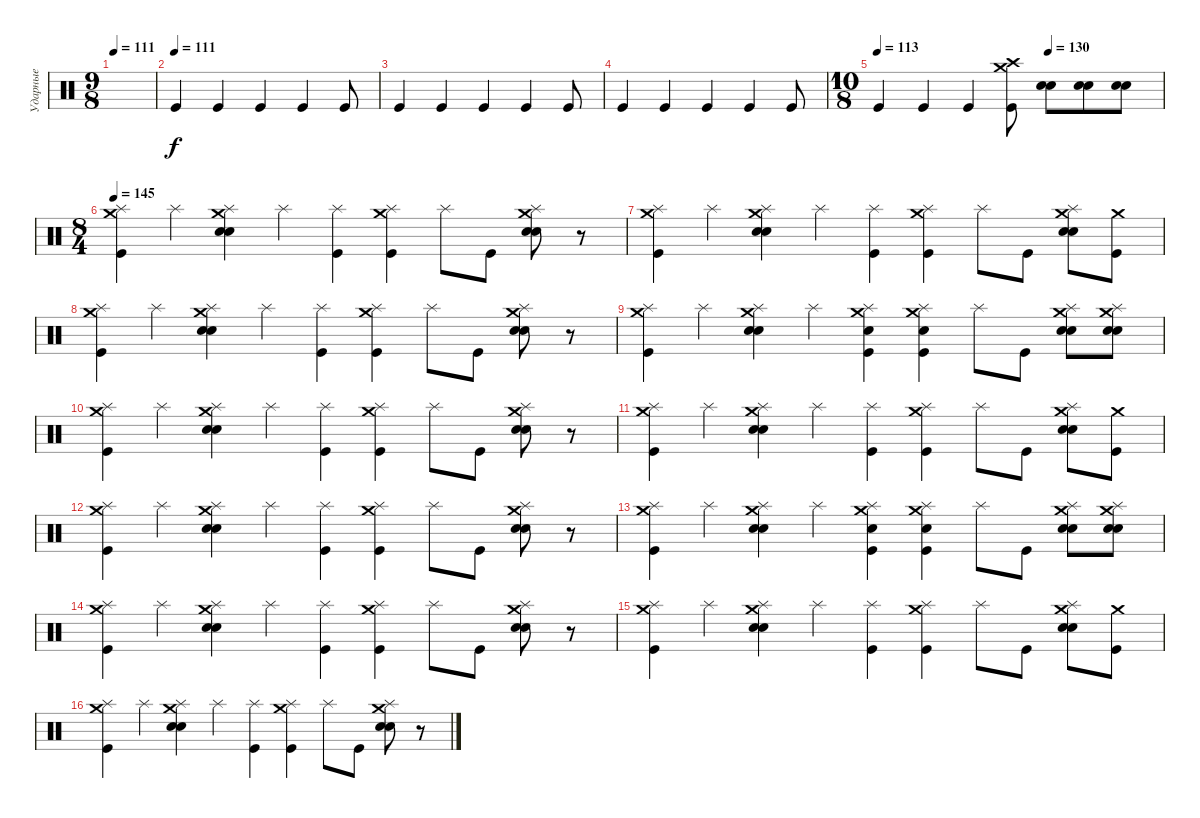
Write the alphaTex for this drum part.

\track ("Ударные" "Ударные") {instrument percussion}
\staff {score}
\articulation defaults
\ts (9 8)
\tempo 111
\clef neutral
\ks c
|
\tempo (111)
"Kick (hit)".4 "Kick (hit)".4 "Kick (hit)".4 "Kick (hit)".4 "Kick (hit)".8 |
"Kick (hit)".4 "Kick (hit)".4 "Kick (hit)".4 "Kick (hit)".4 "Kick (hit)".8 |
"Kick (hit)".4 "Kick (hit)".4 "Kick (hit)".4 "Kick (hit)".4 "Kick (hit)".8 |
\ts (10 8)
\tempo 113
\tempo (130 0.6)
"Kick (hit)".4 "Kick (hit)".4 "Kick (hit)".4 ("Crash medium (hit)" "Crash high (hit)" "Kick (hit)").8 ("Electric Snare (hit)" "Electric Snare (hit)").8 ("Electric Snare (hit)" "Electric Snare (hit)").8 ("Electric Snare (hit)" "Electric Snare (hit)").8 |
\ts (8 4)
\tempo 145
("Splash (hit)" "Crash medium (hit)" "Kick (hit)").4 "Splash (hit)".4 ("Splash (hit)" "Crash medium (hit)" "Electric Snare (hit)" "Electric Snare (hit)").4 "Splash (hit)".4 ("Splash (hit)" "Kick (hit)").4 ("Splash (hit)" "Crash medium (hit)" "Kick (hit)").4 "Splash (hit)".8 "Kick (hit)".8 ("Splash (hit)" "Crash medium (hit)" "Electric Snare (hit)" "Electric Snare (hit)").8 r.8 |
("Splash (hit)" "Crash medium (hit)" "Kick (hit)").4 "Splash (hit)".4 ("Splash (hit)" "Crash medium (hit)" "Electric Snare (hit)" "Electric Snare (hit)").4 "Splash (hit)".4 ("Splash (hit)" "Kick (hit)").4 ("Splash (hit)" "Crash medium (hit)" "Kick (hit)").4 "Splash (hit)".8 "Kick (hit)".8 ("Splash (hit)" "Crash medium (hit)" "Electric Snare (hit)" "Electric Snare (hit)").8 ("Crash medium (hit)" "Kick (hit)").8 |
("Splash (hit)" "Crash medium (hit)" "Kick (hit)").4 "Splash (hit)".4 ("Splash (hit)" "Crash medium (hit)" "Electric Snare (hit)" "Electric Snare (hit)").4 "Splash (hit)".4 ("Splash (hit)" "Kick (hit)").4 ("Splash (hit)" "Crash medium (hit)" "Kick (hit)").4 "Splash (hit)".8 "Kick (hit)".8 ("Splash (hit)" "Crash medium (hit)" "Electric Snare (hit)" "Electric Snare (hit)").8 r.8 |
("Splash (hit)" "Crash medium (hit)" "Kick (hit)").4 "Splash (hit)".4 ("Splash (hit)" "Crash medium (hit)" "Electric Snare (hit)" "Electric Snare (hit)").4 "Splash (hit)".4 ("Splash (hit)" "Crash medium (hit)" "Electric Snare (hit)" "Kick (hit)").4 ("Splash (hit)" "Crash medium (hit)" "Electric Snare (hit)" "Kick (hit)").4 "Splash (hit)".8 "Kick (hit)".8 ("Splash (hit)" "Crash medium (hit)" "Electric Snare (hit)" "Electric Snare (hit)").8 ("Splash (hit)" "Crash medium (hit)" "Electric Snare (hit)" "Electric Snare (hit)").8 |
("Splash (hit)" "Crash medium (hit)" "Kick (hit)").4 "Splash (hit)".4 ("Splash (hit)" "Crash medium (hit)" "Electric Snare (hit)" "Electric Snare (hit)").4 "Splash (hit)".4 ("Splash (hit)" "Kick (hit)").4 ("Splash (hit)" "Crash medium (hit)" "Kick (hit)").4 "Splash (hit)".8 "Kick (hit)".8 ("Splash (hit)" "Crash medium (hit)" "Electric Snare (hit)" "Electric Snare (hit)").8 r.8 |
("Splash (hit)" "Crash medium (hit)" "Kick (hit)").4 "Splash (hit)".4 ("Splash (hit)" "Crash medium (hit)" "Electric Snare (hit)" "Electric Snare (hit)").4 "Splash (hit)".4 ("Splash (hit)" "Kick (hit)").4 ("Splash (hit)" "Crash medium (hit)" "Kick (hit)").4 "Splash (hit)".8 "Kick (hit)".8 ("Splash (hit)" "Crash medium (hit)" "Electric Snare (hit)" "Electric Snare (hit)").8 ("Crash medium (hit)" "Kick (hit)").8 |
("Splash (hit)" "Crash medium (hit)" "Kick (hit)").4 "Splash (hit)".4 ("Splash (hit)" "Crash medium (hit)" "Electric Snare (hit)" "Electric Snare (hit)").4 "Splash (hit)".4 ("Splash (hit)" "Kick (hit)").4 ("Splash (hit)" "Crash medium (hit)" "Kick (hit)").4 "Splash (hit)".8 "Kick (hit)".8 ("Splash (hit)" "Crash medium (hit)" "Electric Snare (hit)" "Electric Snare (hit)").8 r.8 |
("Splash (hit)" "Crash medium (hit)" "Kick (hit)").4 "Splash (hit)".4 ("Splash (hit)" "Crash medium (hit)" "Electric Snare (hit)" "Electric Snare (hit)").4 "Splash (hit)".4 ("Splash (hit)" "Crash medium (hit)" "Electric Snare (hit)" "Kick (hit)").4 ("Splash (hit)" "Crash medium (hit)" "Electric Snare (hit)" "Kick (hit)").4 "Splash (hit)".8 "Kick (hit)".8 ("Splash (hit)" "Crash medium (hit)" "Electric Snare (hit)" "Electric Snare (hit)").8 ("Splash (hit)" "Crash medium (hit)" "Electric Snare (hit)" "Electric Snare (hit)").8 |
("Splash (hit)" "Crash medium (hit)" "Kick (hit)").4 "Splash (hit)".4 ("Splash (hit)" "Crash medium (hit)" "Electric Snare (hit)" "Electric Snare (hit)").4 "Splash (hit)".4 ("Splash (hit)" "Kick (hit)").4 ("Splash (hit)" "Crash medium (hit)" "Kick (hit)").4 "Splash (hit)".8 "Kick (hit)".8 ("Splash (hit)" "Crash medium (hit)" "Electric Snare (hit)" "Electric Snare (hit)").8 r.8 |
("Splash (hit)" "Crash medium (hit)" "Kick (hit)").4 "Splash (hit)".4 ("Splash (hit)" "Crash medium (hit)" "Electric Snare (hit)" "Electric Snare (hit)").4 "Splash (hit)".4 ("Splash (hit)" "Kick (hit)").4 ("Splash (hit)" "Crash medium (hit)" "Kick (hit)").4 "Splash (hit)".8 "Kick (hit)".8 ("Splash (hit)" "Crash medium (hit)" "Electric Snare (hit)" "Electric Snare (hit)").8 ("Crash medium (hit)" "Kick (hit)").8 |
("Splash (hit)" "Crash medium (hit)" "Kick (hit)").4 "Splash (hit)".4 ("Splash (hit)" "Crash medium (hit)" "Electric Snare (hit)" "Electric Snare (hit)").4 "Splash (hit)".4 ("Splash (hit)" "Kick (hit)").4 ("Splash (hit)" "Crash medium (hit)" "Kick (hit)").4 "Splash (hit)".8 "Kick (hit)".8 ("Splash (hit)" "Crash medium (hit)" "Electric Snare (hit)" "Electric Snare (hit)").8 r.8
